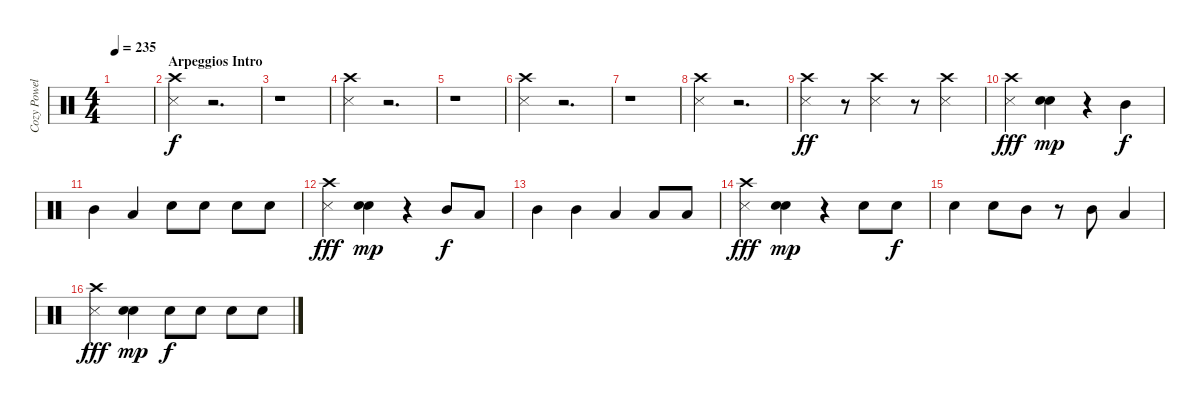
\track ("Cozy Powell" "Cozy Powel") {instrument percussion}
\staff {score}
\articulation defaults
\ts (4 4)
\tempo 235
\clef neutral
\ks c
|
\section ("" "Arpeggios Intro")
("Metronome (hit)" "Crash high (hit)").4 r.2{d} |
r.1 |
("Metronome (hit)" "Crash high (hit)").4 r.2{d} |
r.1 |
("Metronome (hit)" "Crash high (hit)").4 r.2{d} |
r.1 |
("Metronome (hit)" "Crash high (hit)").4 r.2{d} |
("Metronome (hit)" "Crash high (hit)").4{dy ff} r.8 ("Metronome (hit)" "Crash high (hit)").4 r.8 ("Metronome (hit)" "Crash high (hit)").4 |
("Metronome (hit)" "Crash high (hit)").4{dy fff} ("Electric Snare (hit)" "Electric Snare (hit)").4{dy mp} r.4 "Mid Tom (hit)".4{dy f} |
"Mid Tom (hit)".4 "Low Tom (hit)".4 "Electric Snare (hit)".8 "Electric Snare (hit)".8 "Electric Snare (hit)".8 "Electric Snare (hit)".8 |
("Crash high (hit)" "Metronome (hit)").4{dy fff} ("Electric Snare (hit)" "Electric Snare (hit)").4{dy mp} r.4 "Mid Tom (hit)".8{dy f} "Low Tom (hit)".8 |
"Mid Tom (hit)".4 "Mid Tom (hit)".4 "Low Tom (hit)".4 "Low Tom (hit)".8 "Low Tom (hit)".8 |
("Metronome (hit)" "Crash high (hit)").4{dy fff} ("Electric Snare (hit)" "Electric Snare (hit)").4{dy mp} r.4 "Electric Snare (hit)".8 "Electric Snare (hit)".8{dy f} |
"Electric Snare (hit)".4 "Electric Snare (hit)".8 "Mid Tom (hit)".8 r.8 "Mid Tom (hit)".8 "Low Tom (hit)".4 |
("Metronome (hit)" "Crash high (hit)").4{dy fff} ("Electric Snare (hit)" "Electric Snare (hit)").4{dy mp} "Electric Snare (hit)".8{dy f} "Electric Snare (hit)".8 "Electric Snare (hit)".8 "Electric Snare (hit)".8
